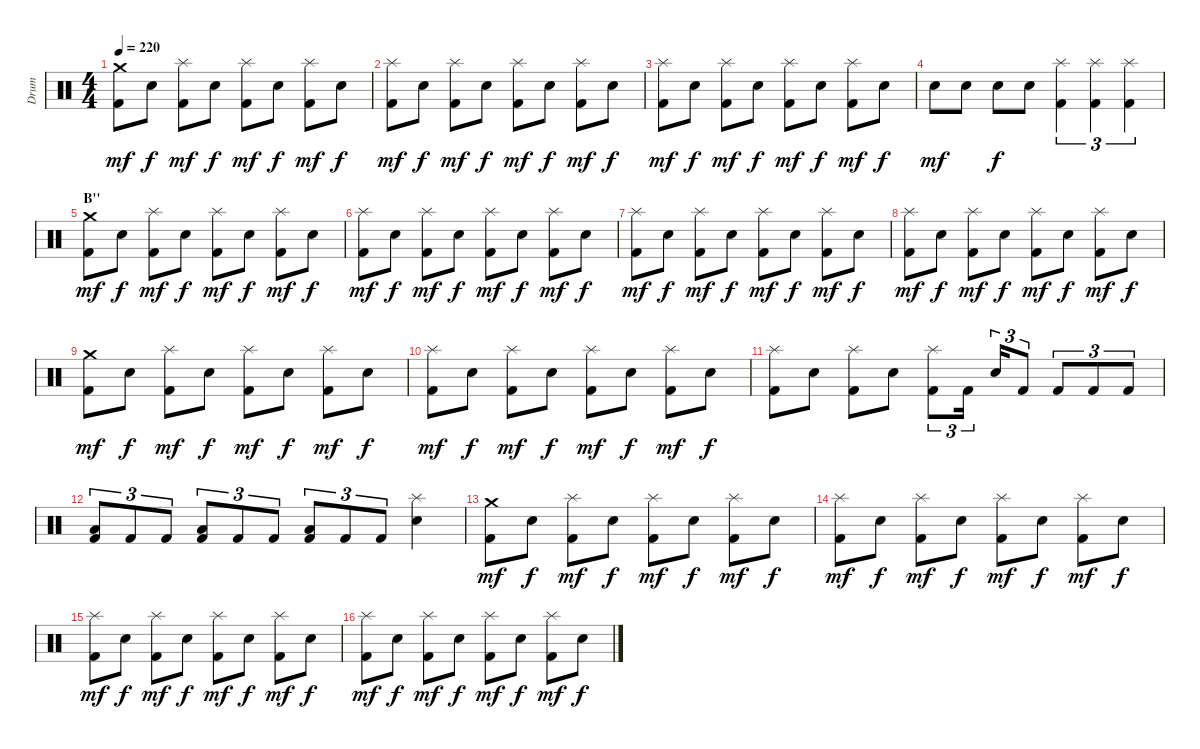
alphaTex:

\track ("Drum" "Drum") {instrument percussion}
\staff {score}
\articulation defaults
\ts (4 4)
\tempo 220
\clef neutral
\ks c
("Crash medium (hit)" "Kick (hit) 2").8{dy mf} "Electric Snare (hit)".8{dy f} ("Splash (hit)" "Kick (hit) 2").8{dy mf} "Electric Snare (hit)".8{dy f} ("Splash (hit)" "Kick (hit) 2").8{dy mf} "Electric Snare (hit)".8{dy f} ("Splash (hit)" "Kick (hit) 2").8{dy mf} "Electric Snare (hit)".8{dy f} |
("Splash (hit)" "Kick (hit) 2").8{dy mf} "Electric Snare (hit)".8{dy f} ("Splash (hit)" "Kick (hit) 2").8{dy mf} "Electric Snare (hit)".8{dy f} ("Splash (hit)" "Kick (hit) 2").8{dy mf} "Electric Snare (hit)".8{dy f} ("Splash (hit)" "Kick (hit) 2").8{dy mf} "Electric Snare (hit)".8{dy f} |
("Splash (hit)" "Kick (hit) 2").8{dy mf} "Electric Snare (hit)".8{dy f} ("Splash (hit)" "Kick (hit) 2").8{dy mf} "Electric Snare (hit)".8{dy f} ("Splash (hit)" "Kick (hit) 2").8{dy mf} "Electric Snare (hit)".8{dy f} ("Splash (hit)" "Kick (hit) 2").8{dy mf} "Electric Snare (hit)".8{dy f} |
"Electric Snare (hit)".8{dy mf} "Electric Snare (hit)".8 "Electric Snare (hit)".8{dy f} "Electric Snare (hit)".8 ("Splash (hit)" "Kick (hit) 2").4{tu (3 2)} ("Splash (hit)" "Kick (hit) 2").4{tu (3 2)} ("Splash (hit)" "Kick (hit) 2").4{tu (3 2)} |
\section ("" "B''")
("Crash medium (hit)" "Kick (hit) 2").8{dy mf} "Electric Snare (hit)".8{dy f} ("Splash (hit)" "Kick (hit) 2").8{dy mf} "Electric Snare (hit)".8{dy f} ("Splash (hit)" "Kick (hit) 2").8{dy mf} "Electric Snare (hit)".8{dy f} ("Splash (hit)" "Kick (hit) 2").8{dy mf} "Electric Snare (hit)".8{dy f} |
("Splash (hit)" "Kick (hit) 2").8{dy mf} "Electric Snare (hit)".8{dy f} ("Splash (hit)" "Kick (hit) 2").8{dy mf} "Electric Snare (hit)".8{dy f} ("Splash (hit)" "Kick (hit) 2").8{dy mf} "Electric Snare (hit)".8{dy f} ("Splash (hit)" "Kick (hit) 2").8{dy mf} "Electric Snare (hit)".8{dy f} |
("Splash (hit)" "Kick (hit) 2").8{dy mf} "Electric Snare (hit)".8{dy f} ("Splash (hit)" "Kick (hit) 2").8{dy mf} "Electric Snare (hit)".8{dy f} ("Splash (hit)" "Kick (hit) 2").8{dy mf} "Electric Snare (hit)".8{dy f} ("Splash (hit)" "Kick (hit) 2").8{dy mf} "Electric Snare (hit)".8{dy f} |
("Splash (hit)" "Kick (hit) 2").8{dy mf} "Electric Snare (hit)".8{dy f} ("Splash (hit)" "Kick (hit) 2").8{dy mf} "Electric Snare (hit)".8{dy f} ("Splash (hit)" "Kick (hit) 2").8{dy mf} "Electric Snare (hit)".8{dy f} ("Splash (hit)" "Kick (hit) 2").8{dy mf} "Electric Snare (hit)".8{dy f} |
("Crash medium (hit)" "Kick (hit) 2").8{dy mf} "Electric Snare (hit)".8{dy f} ("Splash (hit)" "Kick (hit) 2").8{dy mf} "Electric Snare (hit)".8{dy f} ("Splash (hit)" "Kick (hit) 2").8{dy mf} "Electric Snare (hit)".8{dy f} ("Splash (hit)" "Kick (hit) 2").8{dy mf} "Electric Snare (hit)".8{dy f} |
("Splash (hit)" "Kick (hit) 2").8{dy mf} "Electric Snare (hit)".8{dy f} ("Splash (hit)" "Kick (hit) 2").8{dy mf} "Electric Snare (hit)".8{dy f} ("Splash (hit)" "Kick (hit) 2").8{dy mf} "Electric Snare (hit)".8{dy f} ("Splash (hit)" "Kick (hit) 2").8{dy mf} "Electric Snare (hit)".8{dy f} |
("Splash (hit)" "Kick (hit) 2").8 "Electric Snare (hit)".8 ("Splash (hit)" "Kick (hit) 2").8 "Electric Snare (hit)".8 ("Splash (hit)" "Kick (hit) 2").8{tu (3 2)} "Kick (hit) 2".16{tu (3 2)} "Electric Snare (hit)".16{tu (3 2)} "Kick (hit) 2".8{tu (3 2)} "Kick (hit) 2".8{tu (3 2)} "Kick (hit) 2".8{tu (3 2)} "Kick (hit) 2".8{tu (3 2)} |
("Low Tom (hit)" "Kick (hit) 2").8{tu (3 2)} "Kick (hit) 2".8{tu (3 2)} "Kick (hit) 2".8{tu (3 2)} ("Low Tom (hit)" "Kick (hit) 2").8{tu (3 2)} "Kick (hit) 2".8{tu (3 2)} "Kick (hit) 2".8{tu (3 2)} ("Low Tom (hit)" "Kick (hit) 2").8{tu (3 2)} "Kick (hit) 2".8{tu (3 2)} "Kick (hit) 2".8{tu (3 2)} ("Splash (hit)" "Electric Snare (hit)").4 |
("Crash medium (hit)" "Kick (hit) 2").8{dy mf} "Electric Snare (hit)".8{dy f} ("Splash (hit)" "Kick (hit) 2").8{dy mf} "Electric Snare (hit)".8{dy f} ("Splash (hit)" "Kick (hit) 2").8{dy mf} "Electric Snare (hit)".8{dy f} ("Splash (hit)" "Kick (hit) 2").8{dy mf} "Electric Snare (hit)".8{dy f} |
("Splash (hit)" "Kick (hit) 2").8{dy mf} "Electric Snare (hit)".8{dy f} ("Splash (hit)" "Kick (hit) 2").8{dy mf} "Electric Snare (hit)".8{dy f} ("Splash (hit)" "Kick (hit) 2").8{dy mf} "Electric Snare (hit)".8{dy f} ("Splash (hit)" "Kick (hit) 2").8{dy mf} "Electric Snare (hit)".8{dy f} |
("Splash (hit)" "Kick (hit) 2").8{dy mf} "Electric Snare (hit)".8{dy f} ("Splash (hit)" "Kick (hit) 2").8{dy mf} "Electric Snare (hit)".8{dy f} ("Splash (hit)" "Kick (hit) 2").8{dy mf} "Electric Snare (hit)".8{dy f} ("Splash (hit)" "Kick (hit) 2").8{dy mf} "Electric Snare (hit)".8{dy f} |
("Splash (hit)" "Kick (hit) 2").8{dy mf} "Electric Snare (hit)".8{dy f} ("Splash (hit)" "Kick (hit) 2").8{dy mf} "Electric Snare (hit)".8{dy f} ("Splash (hit)" "Kick (hit) 2").8{dy mf} "Electric Snare (hit)".8{dy f} ("Splash (hit)" "Kick (hit) 2").8{dy mf} "Electric Snare (hit)".8{dy f}
